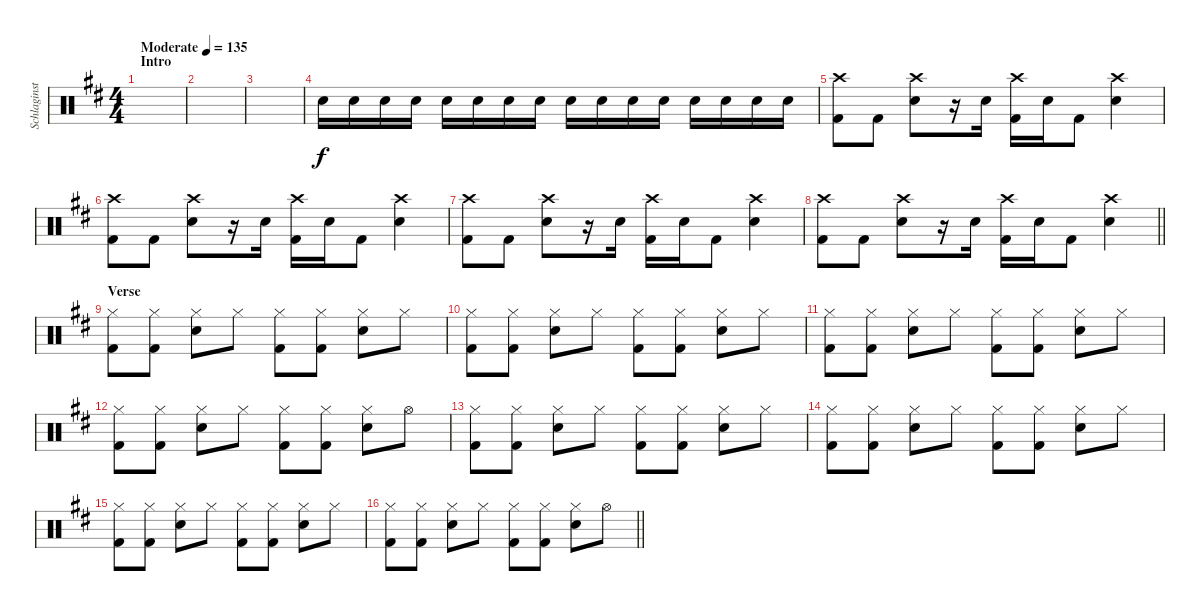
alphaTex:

\track ("Schlaginstrumente - Auswahl" "Schlaginst") {instrument percussion}
\staff {score}
\articulation defaults
\ts (4 4)
\section ("" "Intro")
\tempo (135 "Moderate")
\clef neutral
\ks d
|
|
|
"Snare (hit) 2".16 "Snare (hit) 2".16 "Snare (hit) 2".16 "Snare (hit) 2".16 "Snare (hit) 2".16 "Snare (hit) 2".16 "Snare (hit) 2".16 "Snare (hit) 2".16 "Snare (hit) 2".16 "Snare (hit) 2".16 "Snare (hit) 2".16 "Snare (hit) 2".16 "Snare (hit) 2".16 "Snare (hit) 2".16 "Snare (hit) 2".16 "Snare (hit) 2".16 |
("Crash high (hit)" "Kick (hit) 2").8 "Kick (hit) 2".8 ("Crash high (hit)" "Snare (hit) 2").8 r.16 "Snare (hit) 2".16 ("Crash high (hit)" "Kick (hit) 2").16 "Snare (hit) 2".16 "Kick (hit) 2".8 ("Crash high (hit)" "Snare (hit) 2").4 |
("Crash high (hit)" "Kick (hit) 2").8 "Kick (hit) 2".8 ("Crash high (hit)" "Snare (hit) 2").8 r.16 "Snare (hit) 2".16 ("Crash high (hit)" "Kick (hit) 2").16 "Snare (hit) 2".16 "Kick (hit) 2".8 ("Crash high (hit)" "Snare (hit) 2").4 |
("Crash high (hit)" "Kick (hit) 2").8 "Kick (hit) 2".8 ("Crash high (hit)" "Snare (hit) 2").8 r.16 "Snare (hit) 2".16 ("Crash high (hit)" "Kick (hit) 2").16 "Snare (hit) 2".16 "Kick (hit) 2".8 ("Crash high (hit)" "Snare (hit) 2").4 |
\barLineRight lightlight
("Crash high (hit)" "Kick (hit) 2").8 "Kick (hit) 2".8 ("Crash high (hit)" "Snare (hit) 2").8 r.16 "Snare (hit) 2".16 ("Crash high (hit)" "Kick (hit) 2").16 "Snare (hit) 2".16 "Kick (hit) 2".8 ("Crash high (hit)" "Snare (hit) 2").4 |
\section ("" "Verse")
("Hi-Hat (closed)" "Kick (hit) 2").8 ("Hi-Hat (closed)" "Kick (hit) 2").8 ("Hi-Hat (closed)" "Snare (hit) 2").8 "Hi-Hat (closed)".8 ("Hi-Hat (closed)" "Kick (hit) 2").8 ("Hi-Hat (closed)" "Kick (hit) 2").8 ("Hi-Hat (closed)" "Snare (hit) 2").8 "Hi-Hat (closed)".8 |
("Hi-Hat (closed)" "Kick (hit) 2").8 ("Hi-Hat (closed)" "Kick (hit) 2").8 ("Hi-Hat (closed)" "Snare (hit) 2").8 "Hi-Hat (closed)".8 ("Hi-Hat (closed)" "Kick (hit) 2").8 ("Hi-Hat (closed)" "Kick (hit) 2").8 ("Hi-Hat (closed)" "Snare (hit) 2").8 "Hi-Hat (closed)".8 |
("Hi-Hat (closed)" "Kick (hit) 2").8 ("Hi-Hat (closed)" "Kick (hit) 2").8 ("Hi-Hat (closed)" "Snare (hit) 2").8 "Hi-Hat (closed)".8 ("Hi-Hat (closed)" "Kick (hit) 2").8 ("Hi-Hat (closed)" "Kick (hit) 2").8 ("Hi-Hat (closed)" "Snare (hit) 2").8 "Hi-Hat (closed)".8 |
("Hi-Hat (closed)" "Kick (hit) 2").8 ("Hi-Hat (closed)" "Kick (hit) 2").8 ("Hi-Hat (closed)" "Snare (hit) 2").8 "Hi-Hat (closed)".8 ("Hi-Hat (closed)" "Kick (hit) 2").8 ("Hi-Hat (closed)" "Kick (hit) 2").8 ("Hi-Hat (closed)" "Snare (hit) 2").8 "Hi-Hat (open)".8 |
("Hi-Hat (closed)" "Kick (hit) 2").8 ("Hi-Hat (closed)" "Kick (hit) 2").8 ("Hi-Hat (closed)" "Snare (hit) 2").8 "Hi-Hat (closed)".8 ("Hi-Hat (closed)" "Kick (hit) 2").8 ("Hi-Hat (closed)" "Kick (hit) 2").8 ("Hi-Hat (closed)" "Snare (hit) 2").8 "Hi-Hat (closed)".8 |
("Hi-Hat (closed)" "Kick (hit) 2").8 ("Hi-Hat (closed)" "Kick (hit) 2").8 ("Hi-Hat (closed)" "Snare (hit) 2").8 "Hi-Hat (closed)".8 ("Hi-Hat (closed)" "Kick (hit) 2").8 ("Hi-Hat (closed)" "Kick (hit) 2").8 ("Hi-Hat (closed)" "Snare (hit) 2").8 "Hi-Hat (closed)".8 |
("Hi-Hat (closed)" "Kick (hit) 2").8 ("Hi-Hat (closed)" "Kick (hit) 2").8 ("Hi-Hat (closed)" "Snare (hit) 2").8 "Hi-Hat (closed)".8 ("Hi-Hat (closed)" "Kick (hit) 2").8 ("Hi-Hat (closed)" "Kick (hit) 2").8 ("Hi-Hat (closed)" "Snare (hit) 2").8 "Hi-Hat (closed)".8 |
\barLineRight lightlight
("Hi-Hat (closed)" "Kick (hit) 2").8 ("Hi-Hat (closed)" "Kick (hit) 2").8 ("Hi-Hat (closed)" "Snare (hit) 2").8 "Hi-Hat (closed)".8 ("Hi-Hat (closed)" "Kick (hit) 2").8 ("Hi-Hat (closed)" "Kick (hit) 2").8 ("Hi-Hat (closed)" "Snare (hit) 2").8 "Hi-Hat (open)".8
